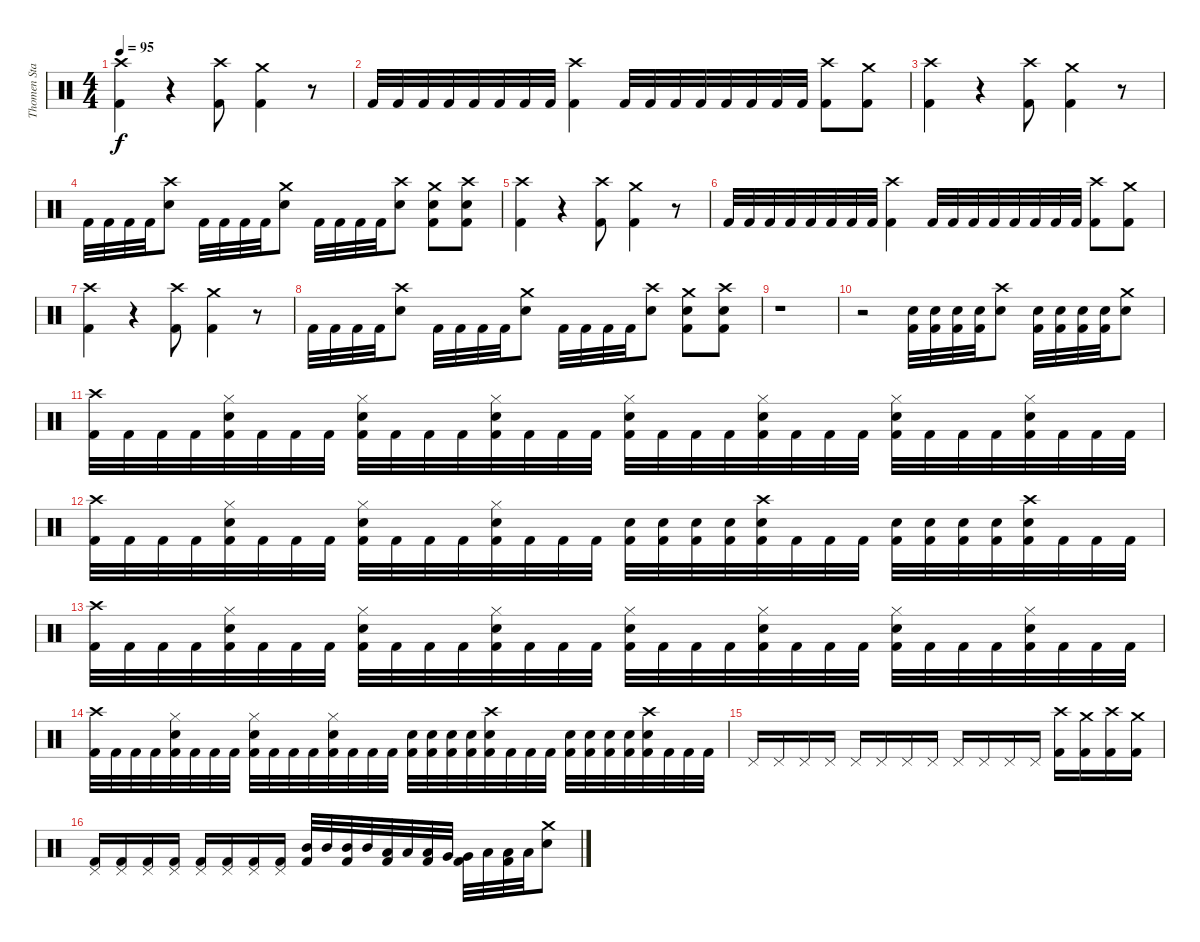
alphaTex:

\track ("Thomen Stauch" "Thomen Sta") {instrument percussion}
\staff {score}
\articulation defaults
\ts (4 4)
\tempo 95
\clef neutral
\ks c
("Crash high (hit)" "Kick (hit) 2").4{dy f} r.4 ("Crash high (hit)" "Kick (hit) 2").8 ("Crash medium (hit)" "Kick (hit) 2").4 r.8 |
"Kick (hit) 2".32 "Kick (hit) 2".32 "Kick (hit) 2".32 "Kick (hit) 2".32 "Kick (hit) 2".32 "Kick (hit) 2".32 "Kick (hit) 2".32 "Kick (hit) 2".32 ("Crash high (hit)" "Kick (hit) 2").4 "Kick (hit) 2".32 "Kick (hit) 2".32 "Kick (hit) 2".32 "Kick (hit) 2".32 "Kick (hit) 2".32 "Kick (hit) 2".32 "Kick (hit) 2".32 "Kick (hit) 2".32 ("Crash high (hit)" "Kick (hit) 2").8 ("Crash medium (hit)" "Kick (hit) 2").8 |
("Crash high (hit)" "Kick (hit) 2").4 r.4 ("Crash high (hit)" "Kick (hit) 2").8 ("Crash medium (hit)" "Kick (hit) 2").4 r.8 |
"Kick (hit) 2".32 "Kick (hit) 2".32 "Kick (hit) 2".32 "Kick (hit) 2".32 ("Crash high (hit)" "Snare (hit) 2").8 "Kick (hit) 2".32 "Kick (hit) 2".32 "Kick (hit) 2".32 "Kick (hit) 2".32 ("Crash medium (hit)" "Snare (hit) 2").8 "Kick (hit) 2".32 "Kick (hit) 2".32 "Kick (hit) 2".32 "Kick (hit) 2".32 ("Crash high (hit)" "Snare (hit) 2").8 ("Crash medium (hit)" "Snare (hit) 2" "Kick (hit) 2").8 ("Crash high (hit)" "Snare (hit) 2" "Kick (hit) 2").8 |
("Crash high (hit)" "Kick (hit) 2").4 r.4 ("Crash high (hit)" "Kick (hit) 2").8 ("Crash medium (hit)" "Kick (hit) 2").4 r.8 |
"Kick (hit) 2".32 "Kick (hit) 2".32 "Kick (hit) 2".32 "Kick (hit) 2".32 "Kick (hit) 2".32 "Kick (hit) 2".32 "Kick (hit) 2".32 "Kick (hit) 2".32 ("Crash high (hit)" "Kick (hit) 2").4 "Kick (hit) 2".32 "Kick (hit) 2".32 "Kick (hit) 2".32 "Kick (hit) 2".32 "Kick (hit) 2".32 "Kick (hit) 2".32 "Kick (hit) 2".32 "Kick (hit) 2".32 ("Crash high (hit)" "Kick (hit) 2").8 ("Crash medium (hit)" "Kick (hit) 2").8 |
("Crash high (hit)" "Kick (hit) 2").4 r.4 ("Crash high (hit)" "Kick (hit) 2").8 ("Crash medium (hit)" "Kick (hit) 2").4 r.8 |
"Kick (hit) 2".32 "Kick (hit) 2".32 "Kick (hit) 2".32 "Kick (hit) 2".32 ("Crash high (hit)" "Snare (hit) 2").8 "Kick (hit) 2".32 "Kick (hit) 2".32 "Kick (hit) 2".32 "Kick (hit) 2".32 ("Crash medium (hit)" "Snare (hit) 2").8 "Kick (hit) 2".32 "Kick (hit) 2".32 "Kick (hit) 2".32 "Kick (hit) 2".32 ("Crash high (hit)" "Snare (hit) 2").8 ("Crash medium (hit)" "Snare (hit) 2" "Kick (hit) 2").8 ("Crash high (hit)" "Snare (hit) 2" "Kick (hit) 2").8 |
r.1 |
r.2 ("Snare (hit) 2" "Kick (hit) 2").32 ("Snare (hit) 2" "Kick (hit) 2").32 ("Snare (hit) 2" "Kick (hit) 2").32 ("Snare (hit) 2" "Kick (hit) 2").32 ("Crash high (hit)" "Snare (hit) 2").8 ("Snare (hit) 2" "Kick (hit) 2").32 ("Snare (hit) 2" "Kick (hit) 2").32 ("Snare (hit) 2" "Kick (hit) 2").32 ("Snare (hit) 2" "Kick (hit) 2").32 ("Crash medium (hit)" "Snare (hit) 2").8 |
("Crash high (hit)" "Kick (hit) 2").32 "Kick (hit) 2".32 "Kick (hit) 2".32 "Kick (hit) 2".32 ("Hi-Hat (closed)" "Snare (hit) 2" "Kick (hit) 2").32 "Kick (hit) 2".32 "Kick (hit) 2".32 "Kick (hit) 2".32 ("Hi-Hat (closed)" "Snare (hit) 2" "Kick (hit) 2").32 "Kick (hit) 2".32 "Kick (hit) 2".32 "Kick (hit) 2".32 ("Hi-Hat (closed)" "Snare (hit) 2" "Kick (hit) 2").32 "Kick (hit) 2".32 "Kick (hit) 2".32 "Kick (hit) 2".32 ("Hi-Hat (closed)" "Snare (hit) 2" "Kick (hit) 2").32 "Kick (hit) 2".32 "Kick (hit) 2".32 "Kick (hit) 2".32 ("Hi-Hat (closed)" "Snare (hit) 2" "Kick (hit) 2").32 "Kick (hit) 2".32 "Kick (hit) 2".32 "Kick (hit) 2".32 ("Hi-Hat (closed)" "Snare (hit) 2" "Kick (hit) 2").32 "Kick (hit) 2".32 "Kick (hit) 2".32 "Kick (hit) 2".32 ("Hi-Hat (closed)" "Snare (hit) 2" "Kick (hit) 2").32 "Kick (hit) 2".32 "Kick (hit) 2".32 "Kick (hit) 2".32 |
("Crash high (hit)" "Kick (hit) 2").32 "Kick (hit) 2".32 "Kick (hit) 2".32 "Kick (hit) 2".32 ("Hi-Hat (closed)" "Snare (hit) 2" "Kick (hit) 2").32 "Kick (hit) 2".32 "Kick (hit) 2".32 "Kick (hit) 2".32 ("Hi-Hat (closed)" "Snare (hit) 2" "Kick (hit) 2").32 "Kick (hit) 2".32 "Kick (hit) 2".32 "Kick (hit) 2".32 ("Hi-Hat (closed)" "Snare (hit) 2" "Kick (hit) 2").32 "Kick (hit) 2".32 "Kick (hit) 2".32 "Kick (hit) 2".32 ("Snare (hit) 2" "Kick (hit) 2").32 ("Snare (hit) 2" "Kick (hit) 2").32 ("Snare (hit) 2" "Kick (hit) 2").32 ("Snare (hit) 2" "Kick (hit) 2").32 ("Crash high (hit)" "Snare (hit) 2" "Kick (hit) 2").32 "Kick (hit) 2".32 "Kick (hit) 2".32 "Kick (hit) 2".32 ("Snare (hit) 2" "Kick (hit) 2").32 ("Snare (hit) 2" "Kick (hit) 2").32 ("Snare (hit) 2" "Kick (hit) 2").32 ("Snare (hit) 2" "Kick (hit) 2").32 ("Crash high (hit)" "Snare (hit) 2" "Kick (hit) 2").32 "Kick (hit) 2".32 "Kick (hit) 2".32 "Kick (hit) 2".32 |
("Crash high (hit)" "Kick (hit) 2").32 "Kick (hit) 2".32 "Kick (hit) 2".32 "Kick (hit) 2".32 ("Hi-Hat (closed)" "Snare (hit) 2" "Kick (hit) 2").32 "Kick (hit) 2".32 "Kick (hit) 2".32 "Kick (hit) 2".32 ("Hi-Hat (closed)" "Snare (hit) 2" "Kick (hit) 2").32 "Kick (hit) 2".32 "Kick (hit) 2".32 "Kick (hit) 2".32 ("Hi-Hat (closed)" "Snare (hit) 2" "Kick (hit) 2").32 "Kick (hit) 2".32 "Kick (hit) 2".32 "Kick (hit) 2".32 ("Hi-Hat (closed)" "Snare (hit) 2" "Kick (hit) 2").32 "Kick (hit) 2".32 "Kick (hit) 2".32 "Kick (hit) 2".32 ("Hi-Hat (closed)" "Snare (hit) 2" "Kick (hit) 2").32 "Kick (hit) 2".32 "Kick (hit) 2".32 "Kick (hit) 2".32 ("Hi-Hat (closed)" "Snare (hit) 2" "Kick (hit) 2").32 "Kick (hit) 2".32 "Kick (hit) 2".32 "Kick (hit) 2".32 ("Hi-Hat (closed)" "Snare (hit) 2" "Kick (hit) 2").32 "Kick (hit) 2".32 "Kick (hit) 2".32 "Kick (hit) 2".32 |
("Crash high (hit)" "Kick (hit) 2").32 "Kick (hit) 2".32 "Kick (hit) 2".32 "Kick (hit) 2".32 ("Hi-Hat (closed)" "Snare (hit) 2" "Kick (hit) 2").32 "Kick (hit) 2".32 "Kick (hit) 2".32 "Kick (hit) 2".32 ("Hi-Hat (closed)" "Snare (hit) 2" "Kick (hit) 2").32 "Kick (hit) 2".32 "Kick (hit) 2".32 "Kick (hit) 2".32 ("Hi-Hat (closed)" "Snare (hit) 2" "Kick (hit) 2").32 "Kick (hit) 2".32 "Kick (hit) 2".32 "Kick (hit) 2".32 ("Snare (hit) 2" "Kick (hit) 2").32 ("Snare (hit) 2" "Kick (hit) 2").32 ("Snare (hit) 2" "Kick (hit) 2").32 ("Snare (hit) 2" "Kick (hit) 2").32 ("Crash high (hit)" "Snare (hit) 2" "Kick (hit) 2").32 "Kick (hit) 2".32 "Kick (hit) 2".32 "Kick (hit) 2".32 ("Snare (hit) 2" "Kick (hit) 2").32 ("Snare (hit) 2" "Kick (hit) 2").32 ("Snare (hit) 2" "Kick (hit) 2").32 ("Snare (hit) 2" "Kick (hit) 2").32 ("Crash high (hit)" "Snare (hit) 2" "Kick (hit) 2").32 "Kick (hit) 2".32 "Kick (hit) 2".32 "Kick (hit) 2".32 |
"Pedal Hi-Hat (hit)".16 "Pedal Hi-Hat (hit)".16 "Pedal Hi-Hat (hit)".16 "Pedal Hi-Hat (hit)".16 "Pedal Hi-Hat (hit)".16 "Pedal Hi-Hat (hit)".16 "Pedal Hi-Hat (hit)".16 "Pedal Hi-Hat (hit)".16 "Pedal Hi-Hat (hit)".16 "Pedal Hi-Hat (hit)".16 "Pedal Hi-Hat (hit)".16 "Pedal Hi-Hat (hit)".16 ("Crash high (hit)" "Kick (hit) 2").16 ("Crash medium (hit)" "Kick (hit) 2").16 ("Crash high (hit)" "Kick (hit) 2").16 ("Crash medium (hit)" "Kick (hit) 2").16 |
("Pedal Hi-Hat (hit)" "Kick (hit) 2").16 ("Pedal Hi-Hat (hit)" "Kick (hit) 2").16 ("Pedal Hi-Hat (hit)" "Kick (hit) 2").16 ("Pedal Hi-Hat (hit)" "Kick (hit) 2").16 ("Pedal Hi-Hat (hit)" "Kick (hit) 2").16 ("Pedal Hi-Hat (hit)" "Kick (hit) 2").16 ("Pedal Hi-Hat (hit)" "Kick (hit) 2").16 ("Pedal Hi-Hat (hit)" "Kick (hit) 2").16 ("Mid Tom (hit)" "Kick (hit) 2").32 "Mid Tom (hit)".32 ("Mid Tom (hit)" "Kick (hit) 2").32 "Mid Tom (hit)".32 ("Low Tom (hit)" "Kick (hit) 2").32 "Low Tom (hit)".32 ("Low Tom (hit)" "Kick (hit) 2").32 "Very Low Tom (hit)".32 ("Very Low Tom (hit)" "Kick (hit) 2").32 "Low Floor Tom (hit)".32 ("Low Floor Tom (hit)" "Kick (hit) 2").32 "Low Floor Tom (hit)".32 ("Crash medium (hit)" "Snare (hit) 2").8
